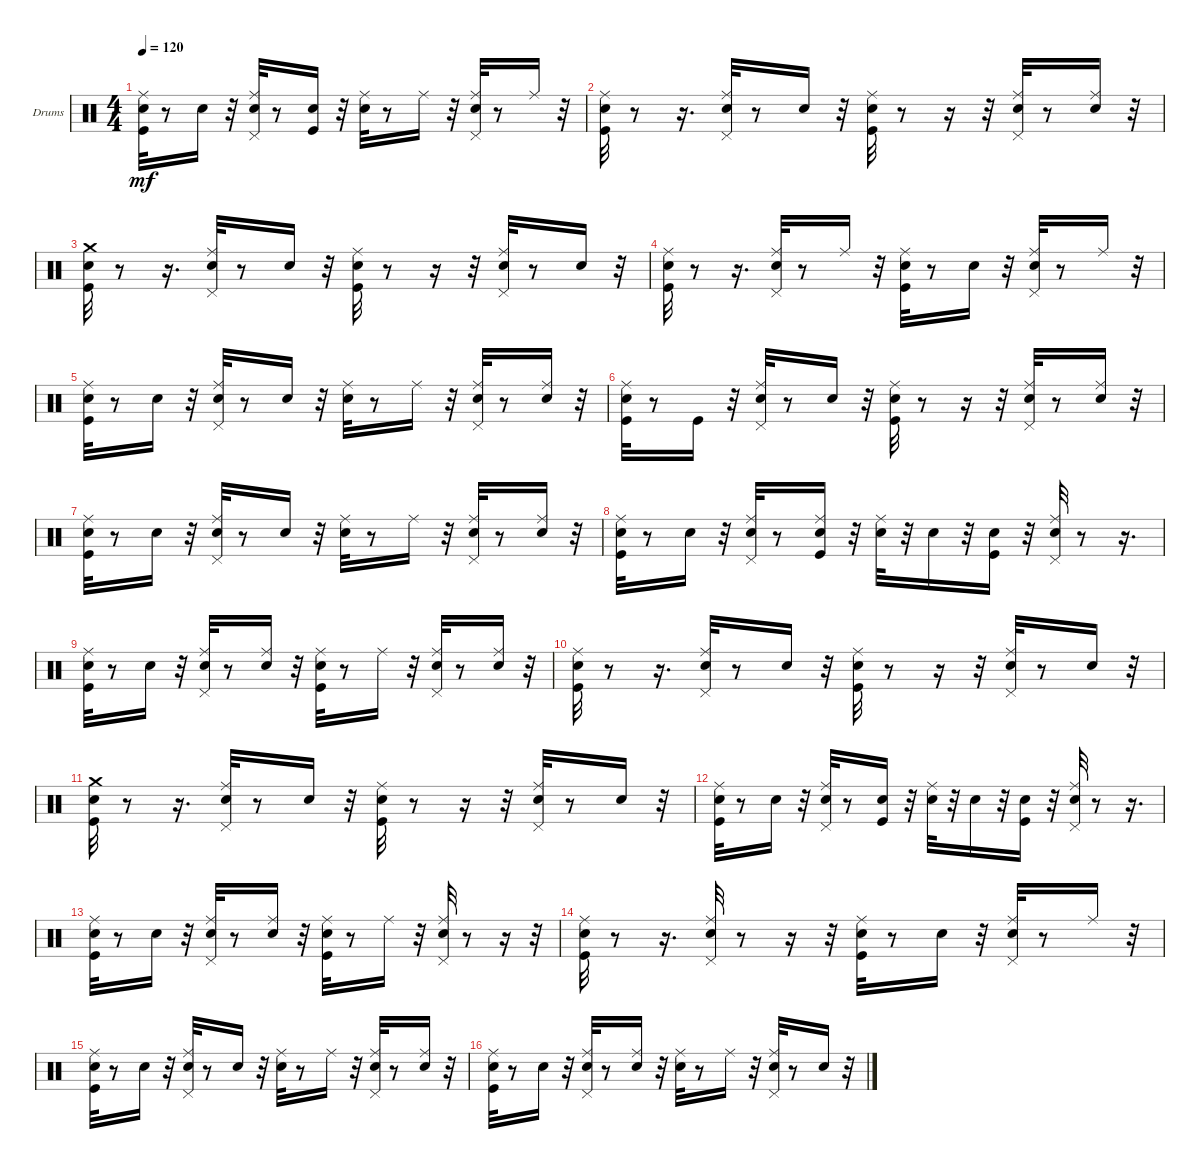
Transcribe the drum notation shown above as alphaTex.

\bracketExtendMode groupsimilarinstruments
\firstSystemTrackNameOrientation horizontal
\otherSystemsTrackNameOrientation horizontal
\track ("Drums   (BB)" "Drums") {instrument percussion}
\staff {score}
\articulation defaults
\ts (4 4)
\tempo 120
\clef neutral
\ks c
("Kick (hit)" "Snare (hit) 2" "Ride (middle)").32{dy mf} r.8 "Snare (hit) 2".16 r.32 ("Snare (hit) 2" "Ride (middle)" "Pedal Hi-Hat (hit)").32 r.8 ("Kick (hit)" "Snare (hit) 2").16 r.32 ("Snare (hit) 2" "Ride (middle)").32 r.8 "Ride (middle)".16 r.32 ("Snare (hit) 2" "Ride (middle)" "Pedal Hi-Hat (hit)").32 r.8 "Ride (middle)".16 r.32 |
("Kick (hit)" "Snare (hit) 2" "Ride (middle)").32 r.8 r.16{d} ("Snare (hit) 2" "Ride (middle)" "Pedal Hi-Hat (hit)").32 r.8 "Snare (hit) 2".16 r.32 ("Kick (hit)" "Snare (hit) 2" "Ride (middle)").32 r.8 r.16 r.32 ("Snare (hit) 2" "Ride (middle)" "Pedal Hi-Hat (hit)").32 r.8 ("Snare (hit) 2" "Ride (middle)").16 r.32 |
("Kick (hit)" "Snare (hit) 2" "Crash medium (hit)").32 r.8 r.16{d} ("Snare (hit) 2" "Ride (middle)" "Pedal Hi-Hat (hit)").32 r.8 "Snare (hit) 2".16 r.32 ("Kick (hit)" "Snare (hit) 2" "Ride (middle)").32 r.8 r.16 r.32 ("Snare (hit) 2" "Ride (middle)" "Pedal Hi-Hat (hit)").32 r.8 "Snare (hit) 2".16 r.32 |
("Kick (hit)" "Snare (hit) 2" "Ride (middle)").32 r.8 r.16{d} ("Snare (hit) 2" "Ride (middle)" "Pedal Hi-Hat (hit)").32 r.8 "Ride (middle)".16 r.32 ("Kick (hit)" "Snare (hit) 2" "Ride (middle)").32 r.8 "Snare (hit) 2".16 r.32 ("Snare (hit) 2" "Ride (middle)" "Pedal Hi-Hat (hit)").32 r.8 "Ride (middle)".16 r.32 |
("Kick (hit)" "Snare (hit) 2" "Ride (middle)").32 r.8 "Snare (hit) 2".16 r.32 ("Snare (hit) 2" "Ride (middle)" "Pedal Hi-Hat (hit)").32 r.8 "Snare (hit) 2".16 r.32 ("Snare (hit) 2" "Ride (middle)").32 r.8 "Ride (middle)".16 r.32 ("Snare (hit) 2" "Ride (middle)" "Pedal Hi-Hat (hit)").32 r.8 ("Snare (hit) 2" "Ride (middle)").16 r.32 |
("Kick (hit)" "Snare (hit) 2" "Ride (middle)").32 r.8 "Kick (hit)".16 r.32 ("Snare (hit) 2" "Ride (middle)" "Pedal Hi-Hat (hit)").32 r.8 "Snare (hit) 2".16 r.32 ("Kick (hit)" "Snare (hit) 2" "Ride (middle)").32 r.8 r.16 r.32 ("Snare (hit) 2" "Ride (middle)" "Pedal Hi-Hat (hit)").32 r.8 ("Snare (hit) 2" "Ride (middle)").16 r.32 |
("Kick (hit)" "Snare (hit) 2" "Ride (middle)").32 r.8 "Snare (hit) 2".16 r.32 ("Snare (hit) 2" "Ride (middle)" "Pedal Hi-Hat (hit)").32 r.8 "Snare (hit) 2".16 r.32 ("Snare (hit) 2" "Ride (middle)").32 r.8 "Ride (middle)".16 r.32 ("Snare (hit) 2" "Ride (middle)" "Pedal Hi-Hat (hit)").32 r.8 ("Snare (hit) 2" "Ride (middle)").16 r.32 |
("Kick (hit)" "Snare (hit) 2" "Ride (middle)").32 r.8 "Snare (hit) 2".16 r.32 ("Snare (hit) 2" "Ride (middle)" "Pedal Hi-Hat (hit)").32 r.8 ("Kick (hit)" "Snare (hit) 2" "Ride (middle)").16 r.32 ("Snare (hit) 2" "Ride (middle)").32 r.32 "Snare (hit) 2".16 r.32 ("Kick (hit)" "Snare (hit) 2").16 r.32 ("Snare (hit) 2" "Ride (middle)" "Pedal Hi-Hat (hit)").32 r.8 r.16{d} |
("Kick (hit)" "Snare (hit) 2" "Ride (middle)").32 r.8 "Snare (hit) 2".16 r.32 ("Snare (hit) 2" "Ride (middle)" "Pedal Hi-Hat (hit)").32 r.8 ("Snare (hit) 2" "Ride (middle)").16 r.32 ("Kick (hit)" "Snare (hit) 2" "Ride (middle)").32 r.8 "Ride (middle)".16 r.32 ("Snare (hit) 2" "Ride (middle)" "Pedal Hi-Hat (hit)").32 r.8 ("Snare (hit) 2" "Ride (middle)").16 r.32 |
("Kick (hit)" "Snare (hit) 2" "Ride (middle)").32 r.8 r.16{d} ("Snare (hit) 2" "Ride (middle)" "Pedal Hi-Hat (hit)").32 r.8 "Snare (hit) 2".16 r.32 ("Kick (hit)" "Snare (hit) 2" "Ride (middle)").32 r.8 r.16 r.32 ("Snare (hit) 2" "Ride (middle)" "Pedal Hi-Hat (hit)").32 r.8 "Snare (hit) 2".16 r.32 |
("Kick (hit)" "Snare (hit) 2" "Crash medium (hit)").32 r.8 r.16{d} ("Snare (hit) 2" "Ride (middle)" "Pedal Hi-Hat (hit)").32 r.8 "Snare (hit) 2".16 r.32 ("Kick (hit)" "Snare (hit) 2" "Ride (middle)").32 r.8 r.16 r.32 ("Snare (hit) 2" "Ride (middle)" "Pedal Hi-Hat (hit)").32 r.8 "Snare (hit) 2".16 r.32 |
("Kick (hit)" "Snare (hit) 2" "Ride (middle)").32 r.8 "Snare (hit) 2".16 r.32 ("Snare (hit) 2" "Ride (middle)" "Pedal Hi-Hat (hit)").32 r.8 ("Kick (hit)" "Snare (hit) 2").16 r.32 ("Snare (hit) 2" "Ride (middle)").32 r.32 "Snare (hit) 2".16 r.32 ("Kick (hit)" "Snare (hit) 2").16 r.32 ("Snare (hit) 2" "Ride (middle)" "Pedal Hi-Hat (hit)").32 r.8 r.16{d} |
("Kick (hit)" "Snare (hit) 2" "Ride (middle)").32 r.8 "Snare (hit) 2".16 r.32 ("Snare (hit) 2" "Ride (middle)" "Pedal Hi-Hat (hit)").32 r.8 ("Snare (hit) 2" "Ride (middle)").16 r.32 ("Kick (hit)" "Snare (hit) 2" "Ride (middle)").32 r.8 "Ride (middle)".16 r.32 ("Snare (hit) 2" "Ride (middle)" "Pedal Hi-Hat (hit)").32 r.8 r.16 r.32 |
("Kick (hit)" "Snare (hit) 2" "Ride (middle)").32 r.8 r.16{d} ("Snare (hit) 2" "Ride (middle)" "Pedal Hi-Hat (hit)").32 r.8 r.16 r.32 ("Kick (hit)" "Snare (hit) 2" "Ride (middle)").32 r.8 "Snare (hit) 2".16 r.32 ("Snare (hit) 2" "Ride (middle)" "Pedal Hi-Hat (hit)").32 r.8 "Ride (middle)".16 r.32 |
("Kick (hit)" "Snare (hit) 2" "Ride (middle)").32 r.8 "Snare (hit) 2".16 r.32 ("Snare (hit) 2" "Ride (middle)" "Pedal Hi-Hat (hit)").32 r.8 "Snare (hit) 2".16 r.32 ("Snare (hit) 2" "Ride (middle)").32 r.8 "Ride (middle)".16 r.32 ("Snare (hit) 2" "Ride (middle)" "Pedal Hi-Hat (hit)").32 r.8 ("Snare (hit) 2" "Ride (middle)").16 r.32 |
("Kick (hit)" "Snare (hit) 2" "Ride (middle)").32 r.8 "Snare (hit) 2".16 r.32 ("Snare (hit) 2" "Ride (middle)" "Pedal Hi-Hat (hit)").32 r.8 ("Snare (hit) 2" "Ride (middle)").16 r.32 ("Snare (hit) 2" "Ride (middle)").32 r.8 "Ride (middle)".16 r.32 ("Snare (hit) 2" "Ride (middle)" "Pedal Hi-Hat (hit)").32 r.8 "Snare (hit) 2".16 r.32
